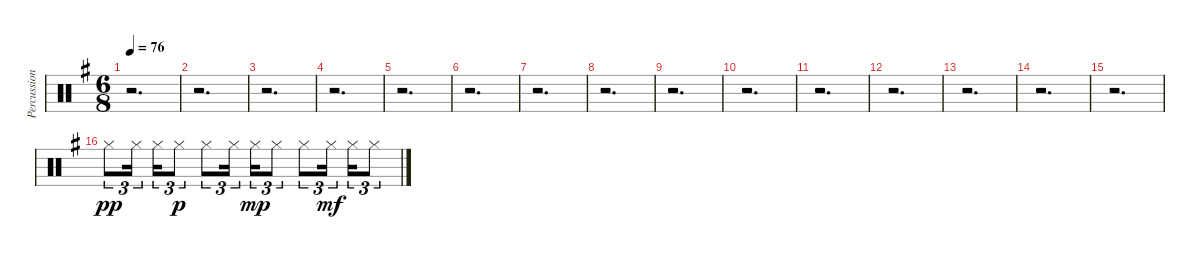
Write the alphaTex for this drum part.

\track ("Percussions 2" "Percussion") {instrument percussion}
\staff {score}
\articulation defaults
\ts (6 8)
\tempo 76
\clef neutral
\ks g
r.2{d dy pp} |
r.2{d} |
r.2{d} |
r.2{d} |
r.2{d} |
r.2{d} |
r.2{d} |
r.2{d} |
r.2{d} |
r.2{d} |
r.2{d} |
r.2{d} |
r.2{d} |
r.2{d} |
r.2{d} |
"Hi-Hat (closed)".8{tu (3 2)} "Hi-Hat (closed)".16{tu (3 2)} "Hi-Hat (closed)".16{tu (3 2)} "Hi-Hat (closed)".8{tu (3 2) dy p} "Hi-Hat (closed)".8{tu (3 2)} "Hi-Hat (closed)".16{tu (3 2)} "Hi-Hat (closed)".16{tu (3 2) dy mp} "Hi-Hat (closed)".8{tu (3 2)} "Hi-Hat (closed)".8{tu (3 2)} "Hi-Hat (closed)".16{tu (3 2) dy mf} "Hi-Hat (closed)".16{tu (3 2)} "Hi-Hat (closed)".8{tu (3 2)}
